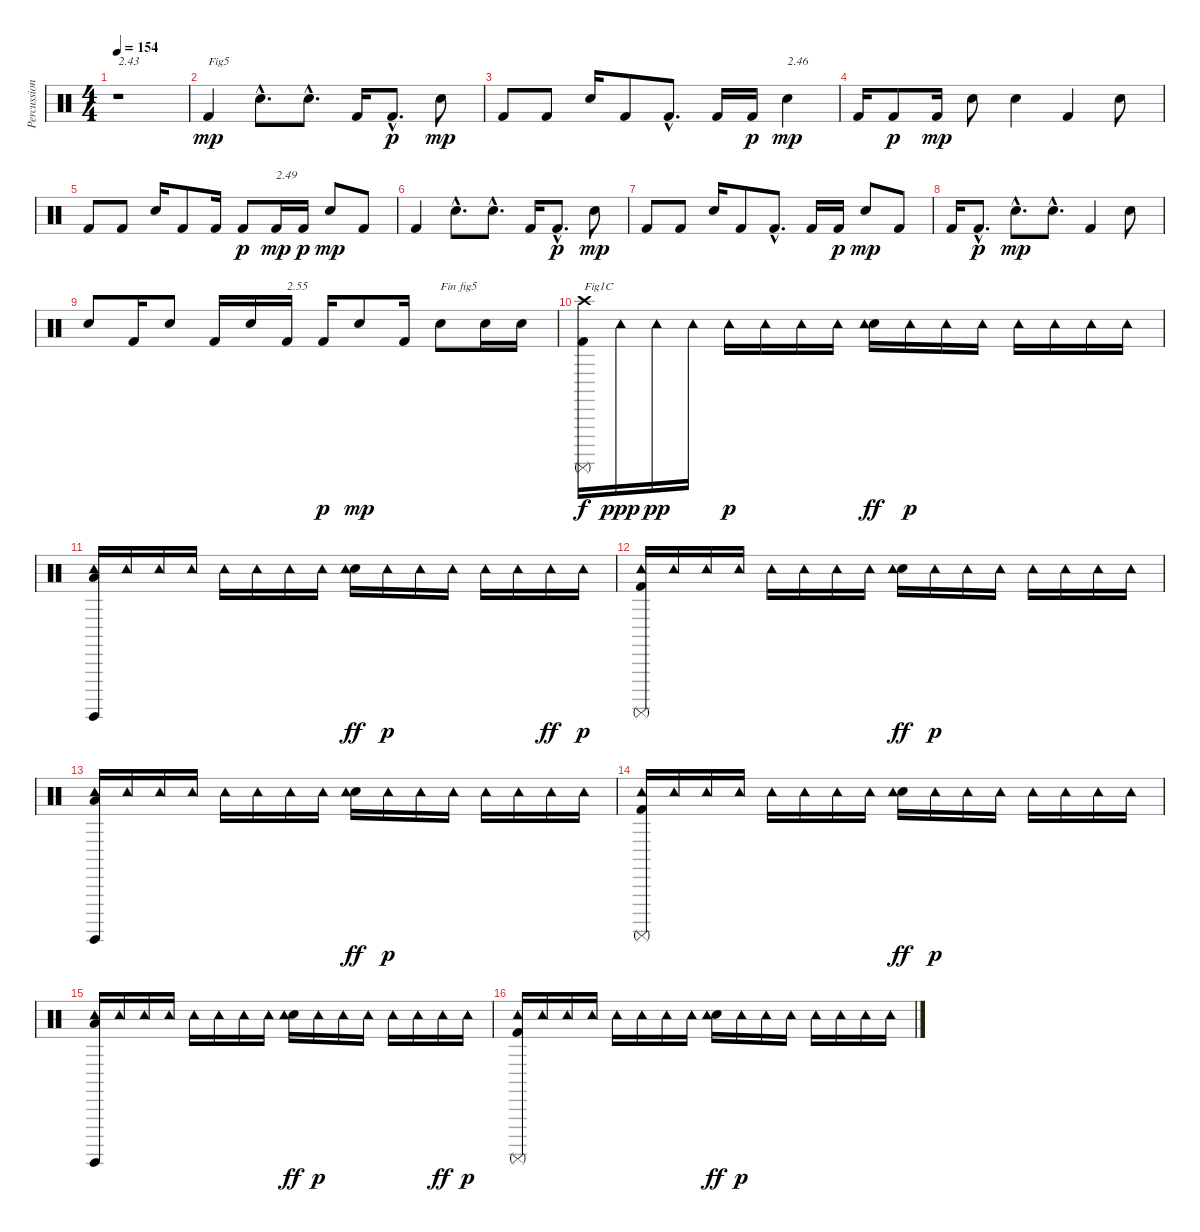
\track ("Percussions" "Percussion") {instrument percussion}
\staff {score}
\articulation defaults
\ts (4 4)
\tempo 154
\clef neutral
\ks c
r.1{txt "2.43" dy f} |
"Kick (hit) 2".4{txt "Fig5" dy mp} "Snare (hit) 2"{hac}.8{d} "Snare (hit) 2"{hac}.8{d} "Kick (hit) 2".16 "Kick (hit) 2"{hac}.8{d dy p} "Snare (hit) 2".8{dy mp} |
"Kick (hit) 2".8 "Kick (hit) 2".8 "Snare (hit) 2".16 "Kick (hit) 2".8 "Kick (hit) 2"{hac}.8{d} "Kick (hit) 2".16 "Kick (hit) 2".16{dy p} "Snare (hit) 2".4{txt "2.46" dy mp} |
"Kick (hit) 2".16 "Kick (hit) 2".8{dy p} "Kick (hit) 2".16{dy mp} "Snare (hit) 2".8 "Snare (hit) 2".4 "Kick (hit) 2".4 "Snare (hit) 2".8 |
"Kick (hit) 2".8 "Kick (hit) 2".8 "Snare (hit) 2".16 "Kick (hit) 2".8 "Kick (hit) 2".16 "Kick (hit) 2".8{dy p} "Kick (hit) 2".16{txt "2.49" dy mp} "Kick (hit) 2".16{dy p} "Snare (hit) 2".8{dy mp} "Kick (hit) 2".8 |
"Kick (hit) 2".4 "Snare (hit) 2"{hac}.8{d} "Snare (hit) 2"{hac}.8{d} "Kick (hit) 2".16 "Kick (hit) 2"{hac}.8{d dy p} "Snare (hit) 2".8{dy mp} |
"Kick (hit) 2".8 "Kick (hit) 2".8 "Snare (hit) 2".16 "Kick (hit) 2".8 "Kick (hit) 2"{hac}.8{d} "Kick (hit) 2".16 "Kick (hit) 2".16{dy p} "Snare (hit) 2".8{dy mp} "Kick (hit) 2".8 |
"Kick (hit) 2".16 "Kick (hit) 2"{hac}.8{d dy p} "Snare (hit) 2"{hac}.8{d dy mp} "Snare (hit) 2"{hac}.8{d} "Kick (hit) 2".4 "Snare (hit) 2".8 |
"Snare (hit) 2".8 "Kick (hit) 2".16 "Snare (hit) 2".8 "Kick (hit) 2".16 "Snare (hit) 2".16 "Kick (hit) 2".16{txt "2.55"} "Kick (hit) 2".16{dy p} "Snare (hit) 2".8{dy mp} "Kick (hit) 2".16 "Snare (hit) 2".8{txt "Fin fig5"} "Snare (hit) 2".16 "Snare (hit) 2".16 |
("Kick (hit) 2" "Surdo (mute)" "Crash high (hit)").16{txt "Fig1C" dy f} "Tambourine (hit)".16{dy ppp} "Tambourine (hit)".16{dy pp} "Tambourine (hit)".16 "Tambourine (hit)".16{dy p} "Tambourine (hit)".16 "Tambourine (hit)".16 "Tambourine (hit)".16 ("Electric Snare (hit)" "Tambourine (hit)").16{dy ff} "Tambourine (hit)".16{dy p} "Tambourine (hit)".16 "Tambourine (hit)".16 "Tambourine (hit)".16 "Tambourine (hit)".16 "Tambourine (hit)".16 "Tambourine (hit)".16 |
("Low Tom (hit)" "Surdo (hit)" "Tambourine (hit)").16 "Tambourine (hit)".16 "Tambourine (hit)".16 "Tambourine (hit)".16 "Tambourine (hit)".16 "Tambourine (hit)".16 "Tambourine (hit)".16 "Tambourine (hit)".16 ("Electric Snare (hit)" "Tambourine (hit)").16{dy ff} "Tambourine (hit)".16{dy p} "Tambourine (hit)".16 "Tambourine (hit)".16 "Tambourine (hit)".16 "Tambourine (hit)".16 "Tambourine (hit)".16{dy ff} "Tambourine (hit)".16{dy p} |
("Kick (hit) 2" "Surdo (mute)" "Tambourine (hit)").16 "Tambourine (hit)".16 "Tambourine (hit)".16 "Tambourine (hit)".16 "Tambourine (hit)".16 "Tambourine (hit)".16 "Tambourine (hit)".16 "Tambourine (hit)".16 ("Electric Snare (hit)" "Tambourine (hit)").16{dy ff} "Tambourine (hit)".16{dy p} "Tambourine (hit)".16 "Tambourine (hit)".16 "Tambourine (hit)".16 "Tambourine (hit)".16 "Tambourine (hit)".16 "Tambourine (hit)".16 |
("Low Tom (hit)" "Surdo (hit)" "Tambourine (hit)").16 "Tambourine (hit)".16 "Tambourine (hit)".16 "Tambourine (hit)".16 "Tambourine (hit)".16 "Tambourine (hit)".16 "Tambourine (hit)".16 "Tambourine (hit)".16 ("Electric Snare (hit)" "Tambourine (hit)").16{dy ff} "Tambourine (hit)".16{dy p} "Tambourine (hit)".16 "Tambourine (hit)".16 "Tambourine (hit)".16 "Tambourine (hit)".16 "Tambourine (hit)".16 "Tambourine (hit)".16 |
("Kick (hit) 2" "Surdo (mute)" "Tambourine (hit)").16 "Tambourine (hit)".16 "Tambourine (hit)".16 "Tambourine (hit)".16 "Tambourine (hit)".16 "Tambourine (hit)".16 "Tambourine (hit)".16 "Tambourine (hit)".16 ("Electric Snare (hit)" "Tambourine (hit)").16{dy ff} "Tambourine (hit)".16{dy p} "Tambourine (hit)".16 "Tambourine (hit)".16 "Tambourine (hit)".16 "Tambourine (hit)".16 "Tambourine (hit)".16 "Tambourine (hit)".16 |
("Low Tom (hit)" "Surdo (hit)" "Tambourine (hit)").16 "Tambourine (hit)".16 "Tambourine (hit)".16 "Tambourine (hit)".16 "Tambourine (hit)".16 "Tambourine (hit)".16 "Tambourine (hit)".16 "Tambourine (hit)".16 ("Electric Snare (hit)" "Tambourine (hit)").16{dy ff} "Tambourine (hit)".16{dy p} "Tambourine (hit)".16 "Tambourine (hit)".16 "Tambourine (hit)".16 "Tambourine (hit)".16 "Tambourine (hit)".16{dy ff} "Tambourine (hit)".16{dy p} |
("Kick (hit) 2" "Surdo (mute)" "Tambourine (hit)").16 "Tambourine (hit)".16 "Tambourine (hit)".16 "Tambourine (hit)".16 "Tambourine (hit)".16 "Tambourine (hit)".16 "Tambourine (hit)".16 "Tambourine (hit)".16 ("Electric Snare (hit)" "Tambourine (hit)").16{dy ff} "Tambourine (hit)".16{dy p} "Tambourine (hit)".16 "Tambourine (hit)".16 "Tambourine (hit)".16 "Tambourine (hit)".16 "Tambourine (hit)".16 "Tambourine (hit)".16
